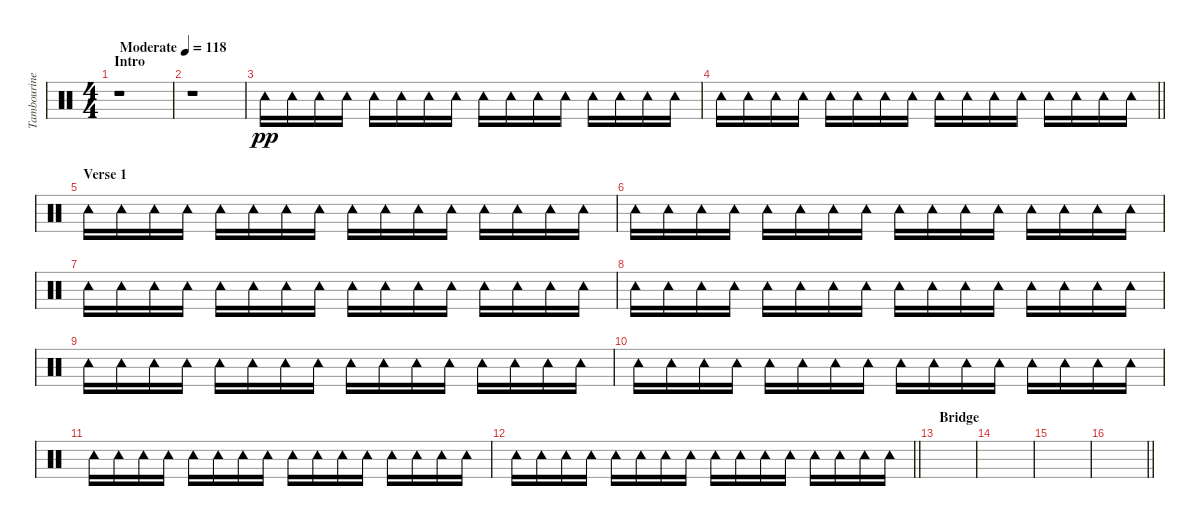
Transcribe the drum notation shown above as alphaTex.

\track ("Tambourine" "Tambourine") {instrument percussion}
\staff {score}
\articulation defaults
\ts (4 4)
\section ("" "Intro")
\tempo (118 "Moderate")
\clef neutral
\ks c
r.1{dy pp} |
r.1 |
"Tambourine (hit)".16 "Tambourine (hit)".16 "Tambourine (hit)".16 "Tambourine (hit)".16 "Tambourine (hit)".16 "Tambourine (hit)".16 "Tambourine (hit)".16 "Tambourine (hit)".16 "Tambourine (hit)".16 "Tambourine (hit)".16 "Tambourine (hit)".16 "Tambourine (hit)".16 "Tambourine (hit)".16 "Tambourine (hit)".16 "Tambourine (hit)".16 "Tambourine (hit)".16 |
\barLineRight lightlight "Tambourine (hit)".16 "Tambourine (hit)".16 "Tambourine (hit)".16 "Tambourine (hit)".16 "Tambourine (hit)".16 "Tambourine (hit)".16 "Tambourine (hit)".16 "Tambourine (hit)".16 "Tambourine (hit)".16 "Tambourine (hit)".16 "Tambourine (hit)".16 "Tambourine (hit)".16 "Tambourine (hit)".16 "Tambourine (hit)".16 "Tambourine (hit)".16 "Tambourine (hit)".16
|
\section ("" "Verse 1")
"Tambourine (hit)".16 "Tambourine (hit)".16 "Tambourine (hit)".16 "Tambourine (hit)".16 "Tambourine (hit)".16 "Tambourine (hit)".16 "Tambourine (hit)".16 "Tambourine (hit)".16 "Tambourine (hit)".16 "Tambourine (hit)".16 "Tambourine (hit)".16 "Tambourine (hit)".16 "Tambourine (hit)".16 "Tambourine (hit)".16 "Tambourine (hit)".16 "Tambourine (hit)".16 |
"Tambourine (hit)".16 "Tambourine (hit)".16 "Tambourine (hit)".16 "Tambourine (hit)".16 "Tambourine (hit)".16 "Tambourine (hit)".16 "Tambourine (hit)".16 "Tambourine (hit)".16 "Tambourine (hit)".16 "Tambourine (hit)".16 "Tambourine (hit)".16 "Tambourine (hit)".16 "Tambourine (hit)".16 "Tambourine (hit)".16 "Tambourine (hit)".16 "Tambourine (hit)".16 |
"Tambourine (hit)".16 "Tambourine (hit)".16 "Tambourine (hit)".16 "Tambourine (hit)".16 "Tambourine (hit)".16 "Tambourine (hit)".16 "Tambourine (hit)".16 "Tambourine (hit)".16 "Tambourine (hit)".16 "Tambourine (hit)".16 "Tambourine (hit)".16 "Tambourine (hit)".16 "Tambourine (hit)".16 "Tambourine (hit)".16 "Tambourine (hit)".16 "Tambourine (hit)".16 |
"Tambourine (hit)".16 "Tambourine (hit)".16 "Tambourine (hit)".16 "Tambourine (hit)".16 "Tambourine (hit)".16 "Tambourine (hit)".16 "Tambourine (hit)".16 "Tambourine (hit)".16 "Tambourine (hit)".16 "Tambourine (hit)".16 "Tambourine (hit)".16 "Tambourine (hit)".16 "Tambourine (hit)".16 "Tambourine (hit)".16 "Tambourine (hit)".16 "Tambourine (hit)".16 |
"Tambourine (hit)".16 "Tambourine (hit)".16 "Tambourine (hit)".16 "Tambourine (hit)".16 "Tambourine (hit)".16 "Tambourine (hit)".16 "Tambourine (hit)".16 "Tambourine (hit)".16 "Tambourine (hit)".16 "Tambourine (hit)".16 "Tambourine (hit)".16 "Tambourine (hit)".16 "Tambourine (hit)".16 "Tambourine (hit)".16 "Tambourine (hit)".16 "Tambourine (hit)".16 |
"Tambourine (hit)".16 "Tambourine (hit)".16 "Tambourine (hit)".16 "Tambourine (hit)".16 "Tambourine (hit)".16 "Tambourine (hit)".16 "Tambourine (hit)".16 "Tambourine (hit)".16 "Tambourine (hit)".16 "Tambourine (hit)".16 "Tambourine (hit)".16 "Tambourine (hit)".16 "Tambourine (hit)".16 "Tambourine (hit)".16 "Tambourine (hit)".16 "Tambourine (hit)".16 |
"Tambourine (hit)".16 "Tambourine (hit)".16 "Tambourine (hit)".16 "Tambourine (hit)".16 "Tambourine (hit)".16 "Tambourine (hit)".16 "Tambourine (hit)".16 "Tambourine (hit)".16 "Tambourine (hit)".16 "Tambourine (hit)".16 "Tambourine (hit)".16 "Tambourine (hit)".16 "Tambourine (hit)".16 "Tambourine (hit)".16 "Tambourine (hit)".16 "Tambourine (hit)".16 |
\barLineRight lightlight "Tambourine (hit)".16 "Tambourine (hit)".16 "Tambourine (hit)".16 "Tambourine (hit)".16 "Tambourine (hit)".16 "Tambourine (hit)".16 "Tambourine (hit)".16 "Tambourine (hit)".16 "Tambourine (hit)".16 "Tambourine (hit)".16 "Tambourine (hit)".16 "Tambourine (hit)".16 "Tambourine (hit)".16 "Tambourine (hit)".16 "Tambourine (hit)".16 "Tambourine (hit)".16
|
\section ("" "Bridge")
|
|
|
\barLineRight lightlight
